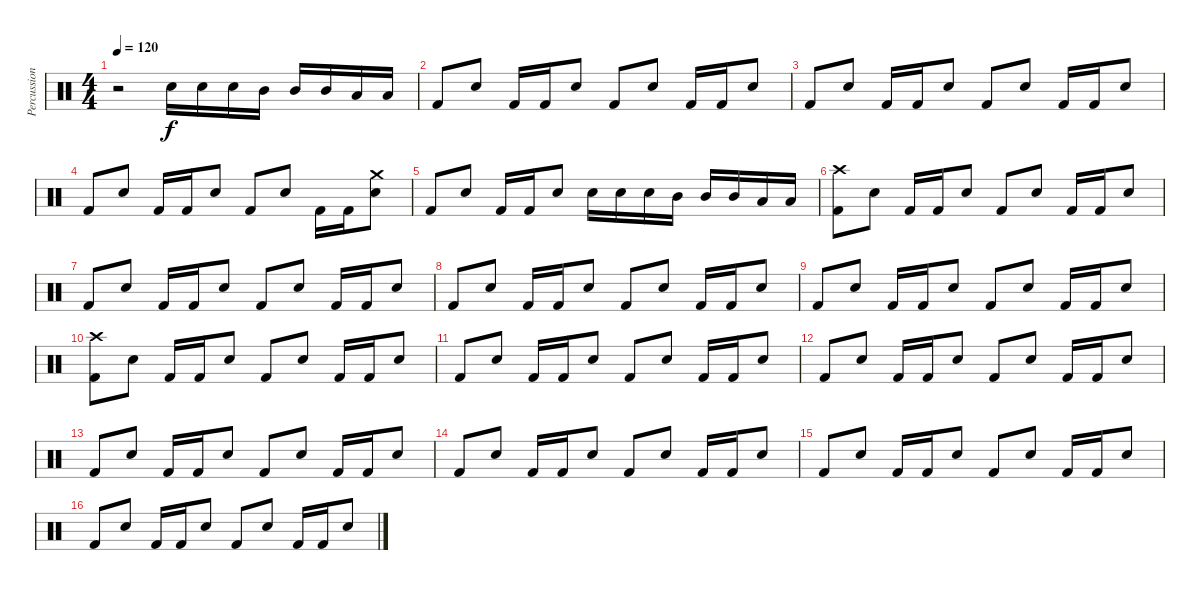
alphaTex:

\track ("Percussions" "Percussion") {instrument percussion}
\staff {score}
\articulation defaults
\ts (4 4)
\tempo 120
\clef neutral
\ks c
r.2{dy f} "Snare (hit) 2".16 "Snare (hit) 2".16 "Snare (hit) 2".16 "Mid Tom (hit)".16 "Mid Tom (hit)".16 "Mid Tom (hit)".16 "Low Tom (hit)".16 "Low Tom (hit)".16 |
"Kick (hit) 2".8 "Snare (hit) 2".8 "Kick (hit) 2".16 "Kick (hit) 2".16 "Snare (hit) 2".8 "Kick (hit) 2".8 "Snare (hit) 2".8 "Kick (hit) 2".16 "Kick (hit) 2".16 "Snare (hit) 2".8 |
"Kick (hit) 2".8 "Snare (hit) 2".8 "Kick (hit) 2".16 "Kick (hit) 2".16 "Snare (hit) 2".8 "Kick (hit) 2".8 "Snare (hit) 2".8 "Kick (hit) 2".16 "Kick (hit) 2".16 "Snare (hit) 2".8 |
"Kick (hit) 2".8 "Snare (hit) 2".8 "Kick (hit) 2".16 "Kick (hit) 2".16 "Snare (hit) 2".8 "Kick (hit) 2".8 "Snare (hit) 2".8 "Kick (hit) 2".16 "Kick (hit) 2".16 ("Crash medium (hit)" "Snare (hit) 2").8 |
"Kick (hit) 2".8 "Snare (hit) 2".8 "Kick (hit) 2".16 "Kick (hit) 2".16 "Snare (hit) 2".8 "Snare (hit) 2".16 "Snare (hit) 2".16 "Snare (hit) 2".16 "Mid Tom (hit)".16 "Mid Tom (hit)".16 "Mid Tom (hit)".16 "Low Tom (hit)".16 "Low Tom (hit)".16 |
("Crash high (hit)" "Kick (hit) 2").8 "Snare (hit) 2".8 "Kick (hit) 2".16 "Kick (hit) 2".16 "Snare (hit) 2".8 "Kick (hit) 2".8 "Snare (hit) 2".8 "Kick (hit) 2".16 "Kick (hit) 2".16 "Snare (hit) 2".8 |
"Kick (hit) 2".8 "Snare (hit) 2".8 "Kick (hit) 2".16 "Kick (hit) 2".16 "Snare (hit) 2".8 "Kick (hit) 2".8 "Snare (hit) 2".8 "Kick (hit) 2".16 "Kick (hit) 2".16 "Snare (hit) 2".8 |
"Kick (hit) 2".8 "Snare (hit) 2".8 "Kick (hit) 2".16 "Kick (hit) 2".16 "Snare (hit) 2".8 "Kick (hit) 2".8 "Snare (hit) 2".8 "Kick (hit) 2".16 "Kick (hit) 2".16 "Snare (hit) 2".8 |
"Kick (hit) 2".8 "Snare (hit) 2".8 "Kick (hit) 2".16 "Kick (hit) 2".16 "Snare (hit) 2".8 "Kick (hit) 2".8 "Snare (hit) 2".8 "Kick (hit) 2".16 "Kick (hit) 2".16 "Snare (hit) 2".8 |
("Crash high (hit)" "Kick (hit) 2").8 "Snare (hit) 2".8 "Kick (hit) 2".16 "Kick (hit) 2".16 "Snare (hit) 2".8 "Kick (hit) 2".8 "Snare (hit) 2".8 "Kick (hit) 2".16 "Kick (hit) 2".16 "Snare (hit) 2".8 |
"Kick (hit) 2".8 "Snare (hit) 2".8 "Kick (hit) 2".16 "Kick (hit) 2".16 "Snare (hit) 2".8 "Kick (hit) 2".8 "Snare (hit) 2".8 "Kick (hit) 2".16 "Kick (hit) 2".16 "Snare (hit) 2".8 |
"Kick (hit) 2".8 "Snare (hit) 2".8 "Kick (hit) 2".16 "Kick (hit) 2".16 "Snare (hit) 2".8 "Kick (hit) 2".8 "Snare (hit) 2".8 "Kick (hit) 2".16 "Kick (hit) 2".16 "Snare (hit) 2".8 |
"Kick (hit) 2".8 "Snare (hit) 2".8 "Kick (hit) 2".16 "Kick (hit) 2".16 "Snare (hit) 2".8 "Kick (hit) 2".8 "Snare (hit) 2".8 "Kick (hit) 2".16 "Kick (hit) 2".16 "Snare (hit) 2".8 |
"Kick (hit) 2".8 "Snare (hit) 2".8 "Kick (hit) 2".16 "Kick (hit) 2".16 "Snare (hit) 2".8 "Kick (hit) 2".8 "Snare (hit) 2".8 "Kick (hit) 2".16 "Kick (hit) 2".16 "Snare (hit) 2".8 |
"Kick (hit) 2".8 "Snare (hit) 2".8 "Kick (hit) 2".16 "Kick (hit) 2".16 "Snare (hit) 2".8 "Kick (hit) 2".8 "Snare (hit) 2".8 "Kick (hit) 2".16 "Kick (hit) 2".16 "Snare (hit) 2".8 |
"Kick (hit) 2".8 "Snare (hit) 2".8 "Kick (hit) 2".16 "Kick (hit) 2".16 "Snare (hit) 2".8 "Kick (hit) 2".8 "Snare (hit) 2".8 "Kick (hit) 2".16 "Kick (hit) 2".16 "Snare (hit) 2".8
